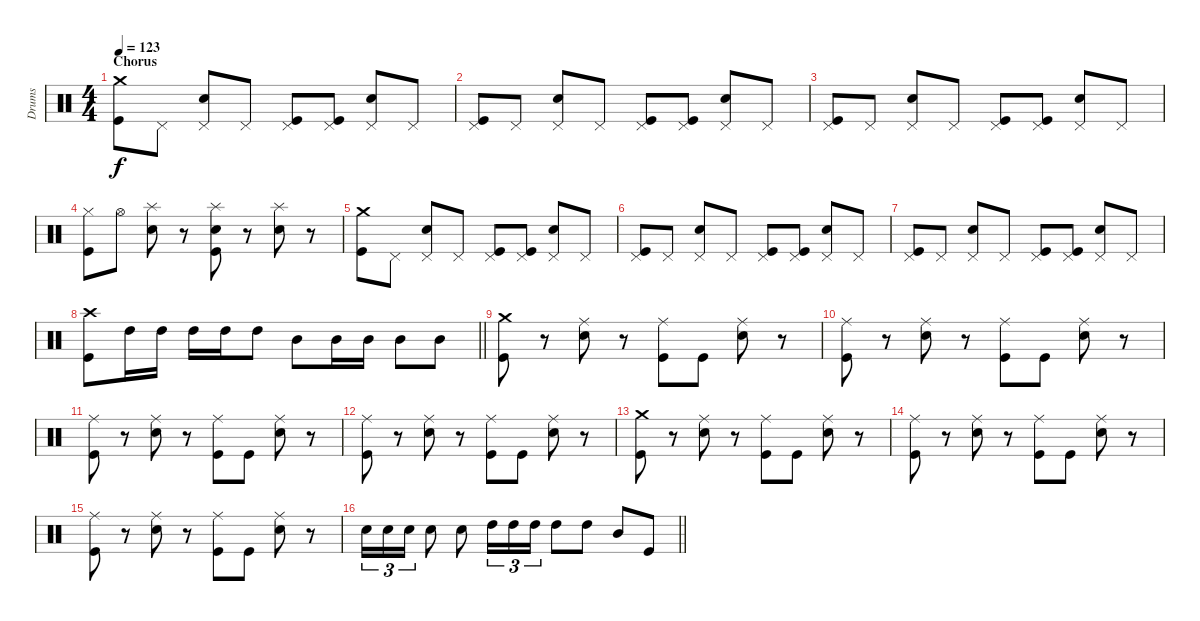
\track ("Drums" "Drums") {instrument percussion}
\staff {score}
\articulation defaults
\ts (4 4)
\section ("" "Chorus")
\tempo 123
\clef neutral
\ks c
("Crash medium (hit)" "Kick (hit)").8{dy f} "Pedal Hi-Hat (hit)".8 ("Pedal Hi-Hat (hit)" "Electric Snare (hit)").8 "Pedal Hi-Hat (hit)".8 ("Pedal Hi-Hat (hit)" "Kick (hit)").8 ("Pedal Hi-Hat (hit)" "Kick (hit)").8 ("Pedal Hi-Hat (hit)" "Electric Snare (hit)").8 "Pedal Hi-Hat (hit)".8 |
("Pedal Hi-Hat (hit)" "Kick (hit)").8 "Pedal Hi-Hat (hit)".8 ("Pedal Hi-Hat (hit)" "Electric Snare (hit)").8 "Pedal Hi-Hat (hit)".8 ("Pedal Hi-Hat (hit)" "Kick (hit)").8 ("Pedal Hi-Hat (hit)" "Kick (hit)").8 ("Pedal Hi-Hat (hit)" "Electric Snare (hit)").8 "Pedal Hi-Hat (hit)".8 |
("Pedal Hi-Hat (hit)" "Kick (hit)").8 "Pedal Hi-Hat (hit)".8 ("Pedal Hi-Hat (hit)" "Electric Snare (hit)").8 "Pedal Hi-Hat (hit)".8 ("Pedal Hi-Hat (hit)" "Kick (hit)").8 ("Pedal Hi-Hat (hit)" "Kick (hit)").8 ("Pedal Hi-Hat (hit)" "Electric Snare (hit)").8 "Pedal Hi-Hat (hit)".8 |
("Hi-Hat (closed)" "Kick (hit)").8 "Hi-Hat (open)".8 ("Splash (hit)" "Electric Snare (hit)").8 r.8 ("Splash (hit)" "Electric Snare (hit)" "Kick (hit)").8 r.8 ("Splash (hit)" "Electric Snare (hit)").8 r.8 |
("Crash medium (hit)" "Kick (hit)").8 "Pedal Hi-Hat (hit)".8 ("Pedal Hi-Hat (hit)" "Electric Snare (hit)").8 "Pedal Hi-Hat (hit)".8 ("Pedal Hi-Hat (hit)" "Kick (hit)").8 ("Pedal Hi-Hat (hit)" "Kick (hit)").8 ("Pedal Hi-Hat (hit)" "Electric Snare (hit)").8 "Pedal Hi-Hat (hit)".8 |
("Pedal Hi-Hat (hit)" "Kick (hit)").8 "Pedal Hi-Hat (hit)".8 ("Pedal Hi-Hat (hit)" "Electric Snare (hit)").8 "Pedal Hi-Hat (hit)".8 ("Pedal Hi-Hat (hit)" "Kick (hit)").8 ("Pedal Hi-Hat (hit)" "Kick (hit)").8 ("Pedal Hi-Hat (hit)" "Electric Snare (hit)").8 "Pedal Hi-Hat (hit)".8 |
("Pedal Hi-Hat (hit)" "Kick (hit)").8 "Pedal Hi-Hat (hit)".8 ("Pedal Hi-Hat (hit)" "Electric Snare (hit)").8 "Pedal Hi-Hat (hit)".8 ("Pedal Hi-Hat (hit)" "Kick (hit)").8 ("Pedal Hi-Hat (hit)" "Kick (hit)").8 ("Pedal Hi-Hat (hit)" "Electric Snare (hit)").8 "Pedal Hi-Hat (hit)".8 |
\barLineRight lightlight
("Crash high (hit)" "Kick (hit)").8 "High Tom (hit)".16 "High Tom (hit)".16 "High Tom (hit)".16 "High Tom (hit)".16 "High Tom (hit)".8 "Mid Tom (hit)".8 "Mid Tom (hit)".16 "Mid Tom (hit)".16 "Mid Tom (hit)".8 "Mid Tom (hit)".8 |
("Crash medium (hit)" "Kick (hit)").8 r.8 ("Ride (middle)" "Electric Snare (hit)").8 r.8 ("Ride (middle)" "Kick (hit)").8 "Kick (hit)".8 ("Ride (middle)" "Electric Snare (hit)").8 r.8 |
("Ride (middle)" "Kick (hit)").8 r.8 ("Ride (middle)" "Electric Snare (hit)").8 r.8 ("Ride (middle)" "Kick (hit)").8 "Kick (hit)".8 ("Ride (middle)" "Electric Snare (hit)").8 r.8 |
("Ride (middle)" "Kick (hit)").8 r.8 ("Ride (middle)" "Electric Snare (hit)").8 r.8 ("Ride (middle)" "Kick (hit)").8 "Kick (hit)".8 ("Ride (middle)" "Electric Snare (hit)").8 r.8 |
("Ride (middle)" "Kick (hit)").8 r.8 ("Ride (middle)" "Electric Snare (hit)").8 r.8 ("Ride (middle)" "Kick (hit)").8 "Kick (hit)".8 ("Ride (middle)" "Electric Snare (hit)").8 r.8 |
("Crash medium (hit)" "Kick (hit)").8 r.8 ("Ride (middle)" "Electric Snare (hit)").8 r.8 ("Ride (middle)" "Kick (hit)").8 "Kick (hit)".8 ("Ride (middle)" "Electric Snare (hit)").8 r.8 |
("Ride (middle)" "Kick (hit)").8 r.8 ("Ride (middle)" "Electric Snare (hit)").8 r.8 ("Ride (middle)" "Kick (hit)").8 "Kick (hit)".8 ("Ride (middle)" "Electric Snare (hit)").8 r.8 |
("Ride (middle)" "Kick (hit)").8 r.8 ("Ride (middle)" "Electric Snare (hit)").8 r.8 ("Ride (middle)" "Kick (hit)").8 "Kick (hit)".8 ("Ride (middle)" "Electric Snare (hit)").8 r.8 |
\barLineRight lightlight "Snare (hit) 2".16{tu (3 2)} "Snare (hit) 2".16{tu (3 2)} "Snare (hit) 2".16{tu (3 2)} "Snare (hit) 2".8 "Snare (hit) 2".8 "High Tom (hit)".16{tu (3 2)} "High Tom (hit)".16{tu (3 2)} "High Tom (hit)".16{tu (3 2)} "High Tom (hit)".8 "High Tom (hit)".8 "Mid Tom (hit)".8 "Kick (hit)".8
